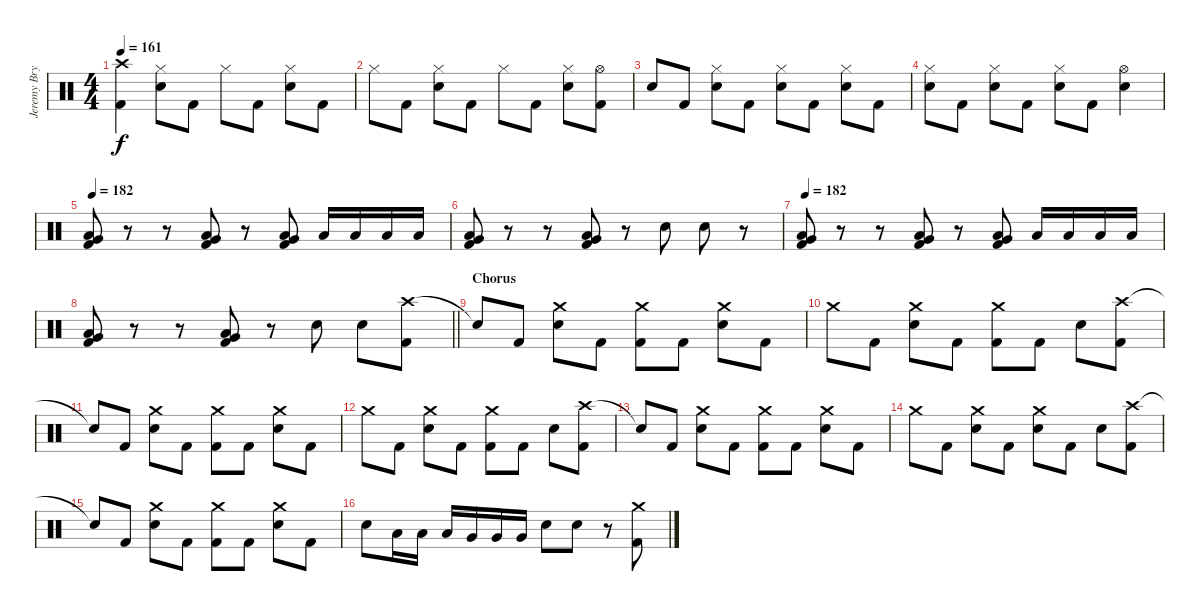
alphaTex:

\track ("Jeremy Bryan - Drums" "Jeremy Bry") {instrument percussion}
\staff {score}
\articulation defaults
\ts (4 4)
\tempo 161
\clef neutral
\ks c
("Crash high (hit)" "Kick (hit) 2").4{dy f} ("Hi-Hat (closed)" "Electric Snare (hit)").8 "Kick (hit) 2".8 "Hi-Hat (closed)".8 "Kick (hit) 2".8 ("Hi-Hat (closed)" "Electric Snare (hit)").8 "Kick (hit) 2".8 |
"Hi-Hat (closed)".8 "Kick (hit) 2".8 ("Hi-Hat (closed)" "Electric Snare (hit)").8 "Kick (hit) 2".8 "Hi-Hat (closed)".8 "Kick (hit) 2".8 ("Hi-Hat (closed)" "Electric Snare (hit)").8 ("Hi-Hat (open)" "Kick (hit) 2").8 |
"Electric Snare (hit)".8 "Kick (hit) 2".8 ("Hi-Hat (closed)" "Electric Snare (hit)").8 "Kick (hit) 2".8 ("Hi-Hat (closed)" "Electric Snare (hit)").8 "Kick (hit) 2".8 ("Hi-Hat (closed)" "Electric Snare (hit)").8 "Kick (hit) 2".8 |
("Hi-Hat (closed)" "Electric Snare (hit)").8 "Kick (hit) 2".8 ("Hi-Hat (closed)" "Electric Snare (hit)").8 "Kick (hit) 2".8 ("Hi-Hat (closed)" "Electric Snare (hit)").8 "Kick (hit) 2".8 ("Hi-Hat (open)" "Electric Snare (hit)").4 |
\tempo 182
("Low Floor Tom (hit)" "Very Low Tom (hit)" "Kick (hit) 2").8 r.8 r.8 ("Low Floor Tom (hit)" "Very Low Tom (hit)" "Kick (hit) 2").8 r.8 ("Low Floor Tom (hit)" "Very Low Tom (hit)" "Kick (hit) 2").8 "Low Floor Tom (hit)".16 "Low Floor Tom (hit)".16 "Low Floor Tom (hit)".16 "Low Floor Tom (hit)".16 |
("Low Floor Tom (hit)" "Very Low Tom (hit)" "Kick (hit) 2").8 r.8 r.8 ("Low Floor Tom (hit)" "Very Low Tom (hit)" "Kick (hit) 2").8 r.8 "Electric Snare (hit)".8 "Electric Snare (hit)".8 r.8 |
\tempo 182
("Low Floor Tom (hit)" "Very Low Tom (hit)" "Kick (hit) 2").8 r.8 r.8 ("Low Floor Tom (hit)" "Very Low Tom (hit)" "Kick (hit) 2").8 r.8 ("Low Floor Tom (hit)" "Very Low Tom (hit)" "Kick (hit) 2").8 "Low Floor Tom (hit)".16 "Low Floor Tom (hit)".16 "Low Floor Tom (hit)".16 "Low Floor Tom (hit)".16 |
\barLineRight lightlight
("Low Floor Tom (hit)" "Very Low Tom (hit)" "Kick (hit) 2").8 r.8 r.8 ("Low Floor Tom (hit)" "Very Low Tom (hit)" "Kick (hit) 2").8 r.8 "Electric Snare (hit)".8 "Electric Snare (hit)".8 ("Crash high (hit)" "Kick (hit) 2").8 |
\section ("" "Chorus")
"Snare (hit)"{t}.8 "Kick (hit) 2".8 ("Crash medium (hit)" "Electric Snare (hit)").8 "Kick (hit) 2".8 ("Crash medium (hit)" "Kick (hit) 2").8 "Kick (hit) 2".8 ("Crash medium (hit)" "Electric Snare (hit)").8 "Kick (hit) 2".8 |
"Crash medium (hit)".8 "Kick (hit) 2".8 ("Crash medium (hit)" "Electric Snare (hit)").8 "Kick (hit) 2".8 ("Crash medium (hit)" "Kick (hit) 2").8 "Kick (hit) 2".8 "Electric Snare (hit)".8 ("Crash high (hit)" "Kick (hit) 2").8 |
"Snare (hit)"{t}.8 "Kick (hit) 2".8 ("Crash medium (hit)" "Electric Snare (hit)").8 "Kick (hit) 2".8 ("Crash medium (hit)" "Kick (hit) 2").8 "Kick (hit) 2".8 ("Crash medium (hit)" "Electric Snare (hit)").8 "Kick (hit) 2".8 |
"Crash medium (hit)".8 "Kick (hit) 2".8 ("Crash medium (hit)" "Electric Snare (hit)").8 "Kick (hit) 2".8 ("Crash medium (hit)" "Kick (hit) 2").8 "Kick (hit) 2".8 "Electric Snare (hit)".8 ("Crash high (hit)" "Kick (hit) 2").8 |
"Snare (hit)"{t}.8 "Kick (hit) 2".8 ("Crash medium (hit)" "Electric Snare (hit)").8 "Kick (hit) 2".8 ("Crash medium (hit)" "Kick (hit) 2").8 "Kick (hit) 2".8 ("Crash medium (hit)" "Electric Snare (hit)").8 "Kick (hit) 2".8 |
"Crash medium (hit)".8 "Kick (hit) 2".8 ("Crash medium (hit)" "Electric Snare (hit)").8 "Kick (hit) 2".8 ("Crash medium (hit)" "Electric Snare (hit)").8 "Kick (hit) 2".8 "Electric Snare (hit)".8 ("Crash high (hit)" "Kick (hit) 2").8 |
"Snare (hit)"{t}.8 "Kick (hit) 2".8 ("Crash medium (hit)" "Electric Snare (hit)").8 "Kick (hit) 2".8 ("Crash medium (hit)" "Kick (hit) 2").8 "Kick (hit) 2".8 ("Crash medium (hit)" "Electric Snare (hit)").8 "Kick (hit) 2".8 |
"Electric Snare (hit)".8 "Low Tom (hit)".16 "Low Tom (hit)".16 "Low Tom (hit)".16 "Very Low Tom (hit)".16 "Very Low Tom (hit)".16 "Very Low Tom (hit)".16 "Electric Snare (hit)".8 "Electric Snare (hit)".8 r.8 ("Crash medium (hit)" "Kick (hit) 2").8
